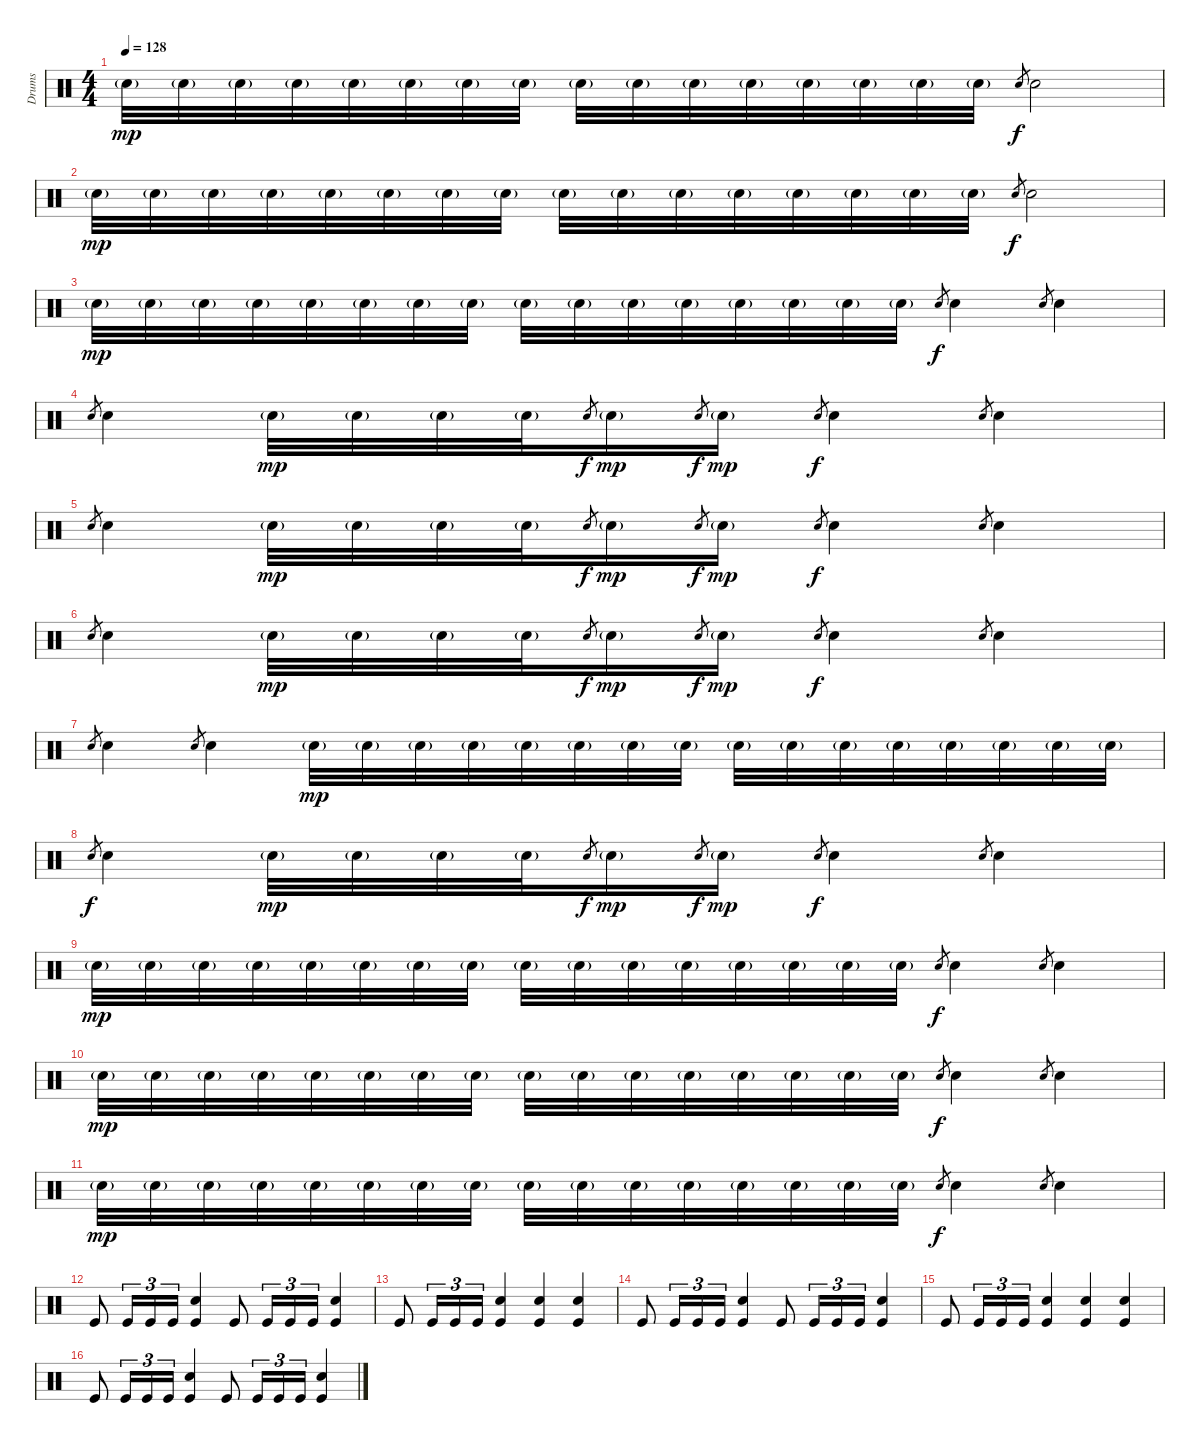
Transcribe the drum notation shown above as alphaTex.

\track ("Drums" "Drums") {instrument percussion}
\staff {score}
\articulation defaults
\ts (4 4)
\tempo 128
\clef neutral
\ks c "Snare (hit) 2"{g}.32{dy mp} "Snare (hit) 2"{g}.32 "Snare (hit) 2"{g}.32 "Snare (hit) 2"{g}.32 "Snare (hit) 2"{g}.32 "Snare (hit) 2"{g}.32 "Snare (hit) 2"{g}.32 "Snare (hit) 2"{g}.32 "Snare (hit) 2"{g}.32 "Snare (hit) 2"{g}.32 "Snare (hit) 2"{g}.32 "Snare (hit) 2"{g}.32 "Snare (hit) 2"{g}.32 "Snare (hit) 2"{g}.32 "Snare (hit) 2"{g}.32 "Snare (hit) 2"{g}.32 "Snare (hit) 2".8{gr dy f} "Snare (hit) 2".2
|
"Snare (hit) 2"{g}.32{dy mp} "Snare (hit) 2"{g}.32 "Snare (hit) 2"{g}.32 "Snare (hit) 2"{g}.32 "Snare (hit) 2"{g}.32 "Snare (hit) 2"{g}.32 "Snare (hit) 2"{g}.32 "Snare (hit) 2"{g}.32 "Snare (hit) 2"{g}.32 "Snare (hit) 2"{g}.32 "Snare (hit) 2"{g}.32 "Snare (hit) 2"{g}.32 "Snare (hit) 2"{g}.32 "Snare (hit) 2"{g}.32 "Snare (hit) 2"{g}.32 "Snare (hit) 2"{g}.32 "Snare (hit) 2".8{gr dy f} "Snare (hit) 2".2 |
"Snare (hit) 2"{g}.32{dy mp} "Snare (hit) 2"{g}.32 "Snare (hit) 2"{g}.32 "Snare (hit) 2"{g}.32 "Snare (hit) 2"{g}.32 "Snare (hit) 2"{g}.32 "Snare (hit) 2"{g}.32 "Snare (hit) 2"{g}.32 "Snare (hit) 2"{g}.32 "Snare (hit) 2"{g}.32 "Snare (hit) 2"{g}.32 "Snare (hit) 2"{g}.32 "Snare (hit) 2"{g}.32 "Snare (hit) 2"{g}.32 "Snare (hit) 2"{g}.32 "Snare (hit) 2"{g}.32 "Snare (hit) 2".8{gr dy f} "Snare (hit) 2".4 "Snare (hit) 2".8{gr} "Snare (hit) 2".4 |
\section ("" "")
"Snare (hit) 2".8{gr} "Snare (hit) 2".4 "Snare (hit) 2"{g}.32{dy mp} "Snare (hit) 2"{g}.32 "Snare (hit) 2"{g}.32 "Snare (hit) 2"{g}.32 "Snare (hit) 2".8{gr dy f} "Snare (hit) 2"{g}.16{dy mp} "Snare (hit) 2".8{gr dy f} "Snare (hit) 2"{g}.16{dy mp} "Snare (hit) 2".8{gr dy f} "Snare (hit) 2".4 "Snare (hit) 2".8{gr} "Snare (hit) 2".4 |
"Snare (hit) 2".8{gr} "Snare (hit) 2".4 "Snare (hit) 2"{g}.32{dy mp} "Snare (hit) 2"{g}.32 "Snare (hit) 2"{g}.32 "Snare (hit) 2"{g}.32 "Snare (hit) 2".8{gr dy f} "Snare (hit) 2"{g}.16{dy mp} "Snare (hit) 2".8{gr dy f} "Snare (hit) 2"{g}.16{dy mp} "Snare (hit) 2".8{gr dy f} "Snare (hit) 2".4 "Snare (hit) 2".8{gr} "Snare (hit) 2".4 |
"Snare (hit) 2".8{gr} "Snare (hit) 2".4 "Snare (hit) 2"{g}.32{dy mp} "Snare (hit) 2"{g}.32 "Snare (hit) 2"{g}.32 "Snare (hit) 2"{g}.32 "Snare (hit) 2".8{gr dy f} "Snare (hit) 2"{g}.16{dy mp} "Snare (hit) 2".8{gr dy f} "Snare (hit) 2"{g}.16{dy mp} "Snare (hit) 2".8{gr dy f} "Snare (hit) 2".4 "Snare (hit) 2".8{gr} "Snare (hit) 2".4 |
"Snare (hit) 2".8{gr} "Snare (hit) 2".4 "Snare (hit) 2".8{gr} "Snare (hit) 2".4 "Snare (hit) 2"{g}.32{dy mp} "Snare (hit) 2"{g}.32 "Snare (hit) 2"{g}.32 "Snare (hit) 2"{g}.32 "Snare (hit) 2"{g}.32 "Snare (hit) 2"{g}.32 "Snare (hit) 2"{g}.32 "Snare (hit) 2"{g}.32 "Snare (hit) 2"{g}.32 "Snare (hit) 2"{g}.32 "Snare (hit) 2"{g}.32 "Snare (hit) 2"{g}.32 "Snare (hit) 2"{g}.32 "Snare (hit) 2"{g}.32 "Snare (hit) 2"{g}.32 "Snare (hit) 2"{g}.32 |
"Snare (hit) 2".8{gr dy f} "Snare (hit) 2".4 "Snare (hit) 2"{g}.32{dy mp} "Snare (hit) 2"{g}.32 "Snare (hit) 2"{g}.32 "Snare (hit) 2"{g}.32 "Snare (hit) 2".8{gr dy f} "Snare (hit) 2"{g}.16{dy mp} "Snare (hit) 2".8{gr dy f} "Snare (hit) 2"{g}.16{dy mp} "Snare (hit) 2".8{gr dy f} "Snare (hit) 2".4 "Snare (hit) 2".8{gr} "Snare (hit) 2".4 |
"Snare (hit) 2"{g}.32{dy mp} "Snare (hit) 2"{g}.32 "Snare (hit) 2"{g}.32 "Snare (hit) 2"{g}.32 "Snare (hit) 2"{g}.32 "Snare (hit) 2"{g}.32 "Snare (hit) 2"{g}.32 "Snare (hit) 2"{g}.32 "Snare (hit) 2"{g}.32 "Snare (hit) 2"{g}.32 "Snare (hit) 2"{g}.32 "Snare (hit) 2"{g}.32 "Snare (hit) 2"{g}.32 "Snare (hit) 2"{g}.32 "Snare (hit) 2"{g}.32 "Snare (hit) 2"{g}.32 "Snare (hit) 2".8{gr dy f} "Snare (hit) 2".4 "Snare (hit) 2".8{gr} "Snare (hit) 2".4 |
"Snare (hit) 2"{g}.32{dy mp} "Snare (hit) 2"{g}.32 "Snare (hit) 2"{g}.32 "Snare (hit) 2"{g}.32 "Snare (hit) 2"{g}.32 "Snare (hit) 2"{g}.32 "Snare (hit) 2"{g}.32 "Snare (hit) 2"{g}.32 "Snare (hit) 2"{g}.32 "Snare (hit) 2"{g}.32 "Snare (hit) 2"{g}.32 "Snare (hit) 2"{g}.32 "Snare (hit) 2"{g}.32 "Snare (hit) 2"{g}.32 "Snare (hit) 2"{g}.32 "Snare (hit) 2"{g}.32 "Snare (hit) 2".8{gr dy f} "Snare (hit) 2".4 "Snare (hit) 2".8{gr} "Snare (hit) 2".4 |
"Snare (hit) 2"{g}.32{dy mp} "Snare (hit) 2"{g}.32 "Snare (hit) 2"{g}.32 "Snare (hit) 2"{g}.32 "Snare (hit) 2"{g}.32 "Snare (hit) 2"{g}.32 "Snare (hit) 2"{g}.32 "Snare (hit) 2"{g}.32 "Snare (hit) 2"{g}.32 "Snare (hit) 2"{g}.32 "Snare (hit) 2"{g}.32 "Snare (hit) 2"{g}.32 "Snare (hit) 2"{g}.32 "Snare (hit) 2"{g}.32 "Snare (hit) 2"{g}.32 "Snare (hit) 2"{g}.32 "Snare (hit) 2".8{gr dy f} "Snare (hit) 2".4 "Snare (hit) 2".8{gr} "Snare (hit) 2".4 |
\section ("" "")
"Kick (hit)".8{volume 16} "Kick (hit)".16{tu (3 2)} "Kick (hit)".16{tu (3 2)} "Kick (hit)".16{tu (3 2)} ("Snare (hit) 2" "Kick (hit)").4 "Kick (hit)".8 "Kick (hit)".16{tu (3 2)} "Kick (hit)".16{tu (3 2)} "Kick (hit)".16{tu (3 2)} ("Snare (hit) 2" "Kick (hit)").4 |
"Kick (hit)".8 "Kick (hit)".16{tu (3 2)} "Kick (hit)".16{tu (3 2)} "Kick (hit)".16{tu (3 2)} ("Snare (hit) 2" "Kick (hit)").4 ("Snare (hit) 2" "Kick (hit)").4 ("Snare (hit) 2" "Kick (hit)").4 |
"Kick (hit)".8 "Kick (hit)".16{tu (3 2)} "Kick (hit)".16{tu (3 2)} "Kick (hit)".16{tu (3 2)} ("Snare (hit) 2" "Kick (hit)").4 "Kick (hit)".8 "Kick (hit)".16{tu (3 2)} "Kick (hit)".16{tu (3 2)} "Kick (hit)".16{tu (3 2)} ("Snare (hit) 2" "Kick (hit)").4 |
"Kick (hit)".8 "Kick (hit)".16{tu (3 2)} "Kick (hit)".16{tu (3 2)} "Kick (hit)".16{tu (3 2)} ("Snare (hit) 2" "Kick (hit)").4 ("Snare (hit) 2" "Kick (hit)").4 ("Snare (hit) 2" "Kick (hit)").4 |
"Kick (hit)".8 "Kick (hit)".16{tu (3 2)} "Kick (hit)".16{tu (3 2)} "Kick (hit)".16{tu (3 2)} ("Snare (hit) 2" "Kick (hit)").4 "Kick (hit)".8 "Kick (hit)".16{tu (3 2)} "Kick (hit)".16{tu (3 2)} "Kick (hit)".16{tu (3 2)} ("Snare (hit) 2" "Kick (hit)").4
